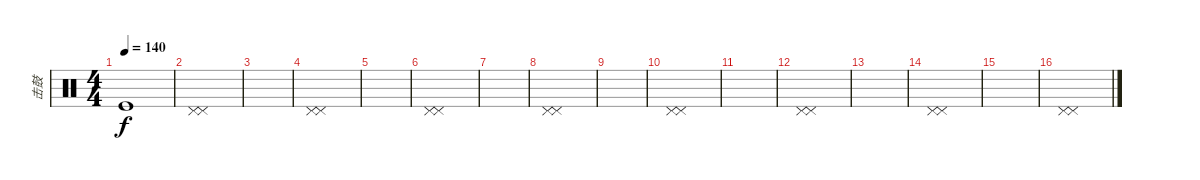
\track ("击鼓" "击鼓") {instrument percussion}
\staff {score}
\articulation defaults
\ts (4 4)
\tempo 140
\clef neutral
\ks c "Kick (hit)".1{dy f}
|
("Pedal Hi-Hat (hit)" "Pedal Hi-Hat (hit)").1 |
|
("Pedal Hi-Hat (hit)" "Pedal Hi-Hat (hit)").1 |
|
("Pedal Hi-Hat (hit)" "Pedal Hi-Hat (hit)").1 |
|
("Pedal Hi-Hat (hit)" "Pedal Hi-Hat (hit)").1 |
|
("Pedal Hi-Hat (hit)" "Pedal Hi-Hat (hit)").1 |
|
("Pedal Hi-Hat (hit)" "Pedal Hi-Hat (hit)").1 |
|
("Pedal Hi-Hat (hit)" "Pedal Hi-Hat (hit)").1 |
|
("Pedal Hi-Hat (hit)" "Pedal Hi-Hat (hit)").1
